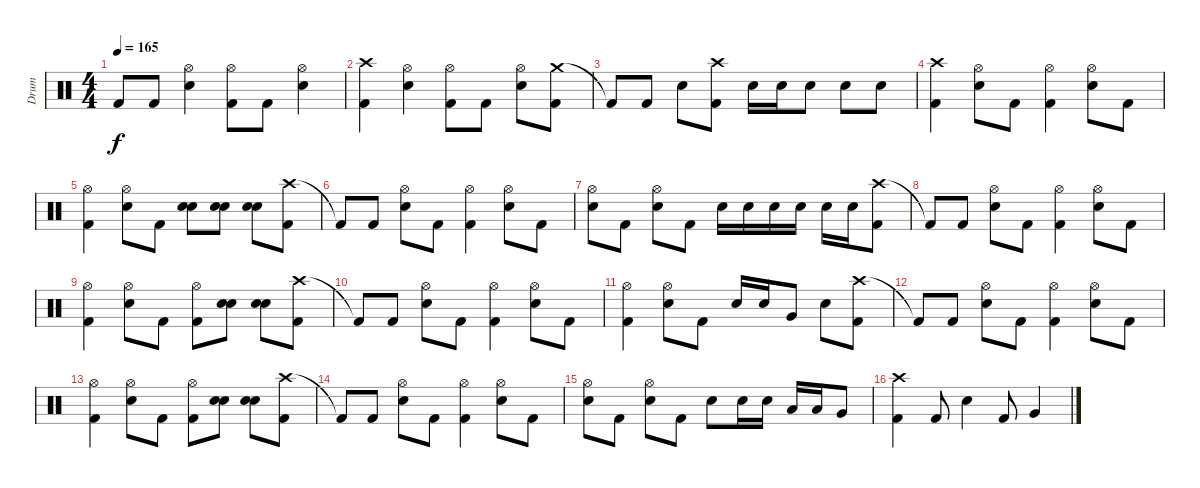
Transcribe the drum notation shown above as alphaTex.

\track ("Drum" "Drum") {instrument percussion}
\staff {score}
\articulation defaults
\ts (4 4)
\tempo 165
\clef neutral
\ks c "Kick (hit) 2"{t}.8{dy f} "Kick (hit) 2".8
("Hi-Hat (open)" "Electric Snare (hit)").4 ("Hi-Hat (open)" "Kick (hit) 2").8 "Kick (hit) 2".8 ("Hi-Hat (open)" "Electric Snare (hit)").4 |
("Crash high (hit)" "Kick (hit) 2").4 ("Hi-Hat (open)" "Electric Snare (hit)").4 ("Hi-Hat (open)" "Kick (hit) 2").8 "Kick (hit) 2".8 ("Hi-Hat (open)" "Electric Snare (hit)").8 ("Crash medium (hit)" "Kick (hit) 2").8 |
"Kick (hit) 2"{t}.8 "Kick (hit) 2".8 "Electric Snare (hit)".8 ("Crash high (hit)" "Kick (hit) 2").8 "Electric Snare (hit)".16 "Electric Snare (hit)".16 "Electric Snare (hit)".8 "Electric Snare (hit)".8 "Electric Snare (hit)".8 |
("Crash high (hit)" "Kick (hit) 2").4 ("Hi-Hat (open)" "Electric Snare (hit)").8 "Kick (hit) 2".8 ("Hi-Hat (open)" "Kick (hit) 2").4 ("Hi-Hat (open)" "Electric Snare (hit)").8 "Kick (hit) 2".8 |
("Hi-Hat (open)" "Kick (hit) 2").4 ("Hi-Hat (open)" "Electric Snare (hit)").8 "Kick (hit) 2".8 ("Electric Snare (hit)" "Electric Snare (hit)").8 ("Electric Snare (hit)" "Electric Snare (hit)").8 ("Electric Snare (hit)" "Electric Snare (hit)").8 ("Crash high (hit)" "Kick (hit) 2").8 |
"Kick (hit) 2"{t}.8 "Kick (hit) 2".8 ("Hi-Hat (open)" "Electric Snare (hit)").8 "Kick (hit) 2".8 ("Hi-Hat (open)" "Kick (hit) 2").4 ("Hi-Hat (open)" "Electric Snare (hit)").8 "Kick (hit) 2".8 |
("Hi-Hat (open)" "Electric Snare (hit)").8 "Kick (hit) 2".8 ("Hi-Hat (open)" "Electric Snare (hit)").8 "Kick (hit) 2".8 "Electric Snare (hit)".16 "Electric Snare (hit)".16 "Electric Snare (hit)".16 "Electric Snare (hit)".16 "Electric Snare (hit)".16 "Electric Snare (hit)".16 ("Crash high (hit)" "Kick (hit) 2").8 |
"Kick (hit) 2"{t}.8 "Kick (hit) 2".8 ("Hi-Hat (open)" "Electric Snare (hit)").8 "Kick (hit) 2".8 ("Hi-Hat (open)" "Kick (hit) 2").4 ("Hi-Hat (open)" "Electric Snare (hit)").8 "Kick (hit) 2".8 |
("Hi-Hat (open)" "Kick (hit) 2").4 ("Hi-Hat (open)" "Electric Snare (hit)").8 "Kick (hit) 2".8 ("Hi-Hat (open)" "Kick (hit) 2").8 ("Electric Snare (hit)" "Electric Snare (hit)").8 ("Electric Snare (hit)" "Electric Snare (hit)").8 ("Crash high (hit)" "Kick (hit) 2").8 |
"Kick (hit) 2"{t}.8 "Kick (hit) 2".8 ("Hi-Hat (open)" "Electric Snare (hit)").8 "Kick (hit) 2".8 ("Hi-Hat (open)" "Kick (hit) 2").4 ("Hi-Hat (open)" "Electric Snare (hit)").8 "Kick (hit) 2".8 |
("Hi-Hat (open)" "Kick (hit) 2").4 ("Hi-Hat (open)" "Electric Snare (hit)").8 "Kick (hit) 2".8 "Electric Snare (hit)".16 "Electric Snare (hit)".16 "Very Low Tom (hit)".8 "Electric Snare (hit)".8 ("Crash high (hit)" "Kick (hit) 2").8 |
"Kick (hit) 2"{t}.8 "Kick (hit) 2".8 ("Hi-Hat (open)" "Electric Snare (hit)").8 "Kick (hit) 2".8 ("Hi-Hat (open)" "Kick (hit) 2").4 ("Hi-Hat (open)" "Electric Snare (hit)").8 "Kick (hit) 2".8 |
("Hi-Hat (open)" "Kick (hit) 2").4 ("Hi-Hat (open)" "Electric Snare (hit)").8 "Kick (hit) 2".8 ("Hi-Hat (open)" "Kick (hit) 2").8 ("Electric Snare (hit)" "Electric Snare (hit)").8 ("Electric Snare (hit)" "Electric Snare (hit)").8 ("Crash high (hit)" "Kick (hit) 2").8 |
"Kick (hit) 2"{t}.8 "Kick (hit) 2".8 ("Hi-Hat (open)" "Electric Snare (hit)").8 "Kick (hit) 2".8 ("Hi-Hat (open)" "Kick (hit) 2").4 ("Hi-Hat (open)" "Electric Snare (hit)").8 "Kick (hit) 2".8 |
("Hi-Hat (open)" "Electric Snare (hit)").8 "Kick (hit) 2".8 ("Hi-Hat (open)" "Electric Snare (hit)").8 "Kick (hit) 2".8 "Electric Snare (hit)".8 "Electric Snare (hit)".16 "Electric Snare (hit)".16 "Low Tom (hit)".16 "Low Tom (hit)".16 "Very Low Tom (hit)".8 |
("Crash high (hit)" "Kick (hit) 2").4 "Kick (hit) 2".8 "Electric Snare (hit)".4 "Kick (hit) 2".8 "Very Low Tom (hit)".4
